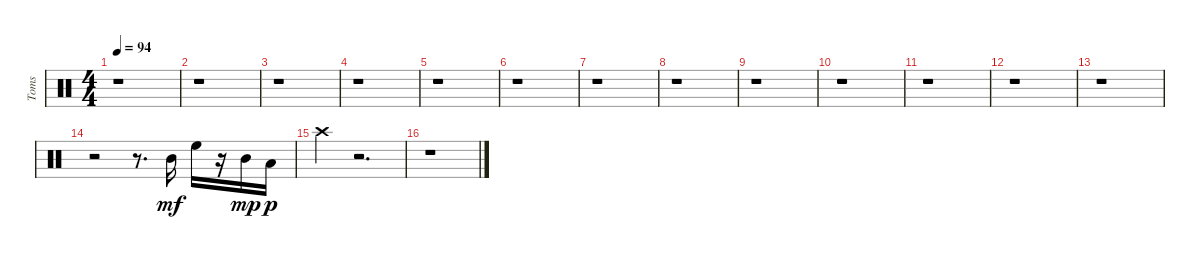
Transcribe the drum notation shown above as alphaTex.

\track ("Toms" "Toms") {instrument percussion}
\staff {score}
\articulation defaults
\ts (4 4)
\tempo 94
\clef neutral
\ks c
r.1{dy mp} |
r.1 |
r.1 |
r.1 |
r.1 |
r.1 |
r.1 |
r.1 |
r.1 |
r.1 |
r.1 |
r.1 |
r.1 |
r.2 r.8{d} "Mid Tom (hit)".16{dy mf} "High Floor Tom (hit)".16 r.16 "Mid Tom (hit)".16{dy mp} "Low Floor Tom (hit)".16{dy p} |
"Crash high (hit)".4 r.2{d} |
r.1
